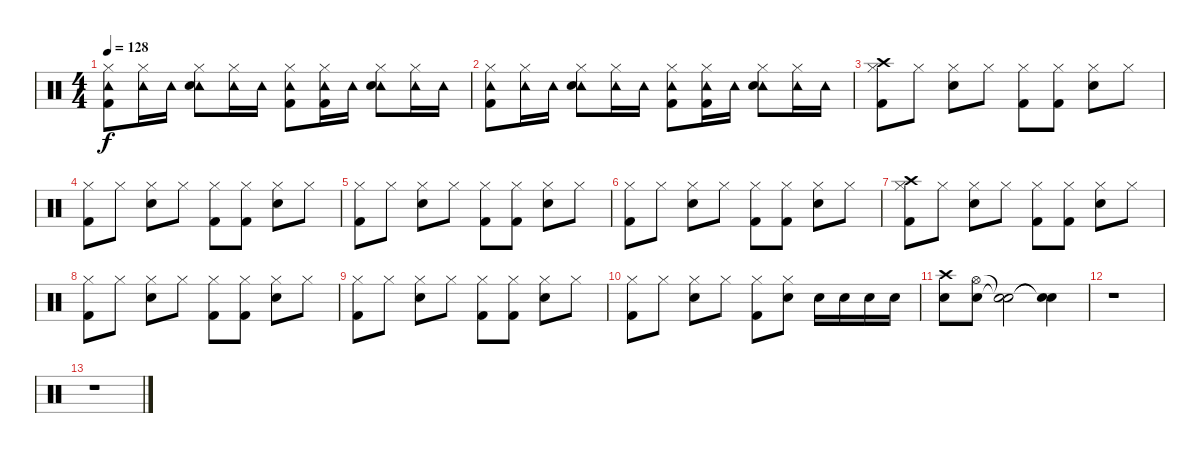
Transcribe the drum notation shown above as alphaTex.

\track "" {instrument percussion}
\staff {score}
\articulation defaults
\ts (4 4)
\tempo 128
\clef neutral
\ks c
("Hi-Hat (closed)" "Tambourine (hit)" "Kick (hit) 2").8{dy f} ("Hi-Hat (closed)" "Tambourine (hit)").16 "Tambourine (hit)".16 ("Hi-Hat (closed)" "Tambourine (hit)" "Snare (hit) 2").8 ("Hi-Hat (closed)" "Tambourine (hit)").16 "Tambourine (hit)".16 ("Hi-Hat (closed)" "Tambourine (hit)" "Kick (hit) 2").8 ("Hi-Hat (closed)" "Tambourine (hit)" "Kick (hit) 2").16 "Tambourine (hit)".16 ("Hi-Hat (closed)" "Tambourine (hit)" "Snare (hit) 2").8 ("Hi-Hat (closed)" "Tambourine (hit)").16 "Tambourine (hit)".16 |
("Hi-Hat (closed)" "Tambourine (hit)" "Kick (hit) 2").8 ("Hi-Hat (closed)" "Tambourine (hit)").16 "Tambourine (hit)".16 ("Hi-Hat (closed)" "Tambourine (hit)" "Snare (hit) 2").8 ("Hi-Hat (closed)" "Tambourine (hit)").16 "Tambourine (hit)".16 ("Hi-Hat (closed)" "Tambourine (hit)" "Kick (hit) 2").8 ("Hi-Hat (closed)" "Tambourine (hit)" "Kick (hit) 2").16 "Tambourine (hit)".16 ("Hi-Hat (closed)" "Tambourine (hit)" "Snare (hit) 2").8 ("Hi-Hat (closed)" "Tambourine (hit)").16 "Tambourine (hit)".16 |
("Hi-Hat (closed)" "Crash high (hit)" "Kick (hit) 2").8 "Hi-Hat (closed)".8 ("Hi-Hat (closed)" "Snare (hit) 2").8 "Hi-Hat (closed)".8 ("Hi-Hat (closed)" "Kick (hit) 2").8 ("Hi-Hat (closed)" "Kick (hit) 2").8 ("Hi-Hat (closed)" "Snare (hit) 2").8 "Hi-Hat (closed)".8 |
("Hi-Hat (closed)" "Kick (hit) 2").8 "Hi-Hat (closed)".8 ("Hi-Hat (closed)" "Snare (hit) 2").8 "Hi-Hat (closed)".8 ("Hi-Hat (closed)" "Kick (hit) 2").8 ("Hi-Hat (closed)" "Kick (hit) 2").8 ("Hi-Hat (closed)" "Snare (hit) 2").8 "Hi-Hat (closed)".8 |
("Hi-Hat (closed)" "Kick (hit) 2").8 "Hi-Hat (closed)".8 ("Hi-Hat (closed)" "Snare (hit) 2").8 "Hi-Hat (closed)".8 ("Hi-Hat (closed)" "Kick (hit) 2").8 ("Hi-Hat (closed)" "Kick (hit) 2").8 ("Hi-Hat (closed)" "Snare (hit) 2").8 "Hi-Hat (closed)".8 |
("Hi-Hat (closed)" "Kick (hit) 2").8 "Hi-Hat (closed)".8 ("Hi-Hat (closed)" "Snare (hit) 2").8 "Hi-Hat (closed)".8 ("Hi-Hat (closed)" "Kick (hit) 2").8 ("Hi-Hat (closed)" "Kick (hit) 2").8 ("Hi-Hat (closed)" "Snare (hit) 2").8 "Hi-Hat (closed)".8 |
("Hi-Hat (closed)" "Crash high (hit)" "Kick (hit) 2").8 "Hi-Hat (closed)".8 ("Hi-Hat (closed)" "Snare (hit) 2").8 "Hi-Hat (closed)".8 ("Hi-Hat (closed)" "Kick (hit) 2").8 ("Hi-Hat (closed)" "Kick (hit) 2").8 ("Hi-Hat (closed)" "Snare (hit) 2").8 "Hi-Hat (closed)".8 |
("Hi-Hat (closed)" "Kick (hit) 2").8 "Hi-Hat (closed)".8 ("Hi-Hat (closed)" "Snare (hit) 2").8 "Hi-Hat (closed)".8 ("Hi-Hat (closed)" "Kick (hit) 2").8 ("Hi-Hat (closed)" "Kick (hit) 2").8 ("Hi-Hat (closed)" "Snare (hit) 2").8 "Hi-Hat (closed)".8 |
("Hi-Hat (closed)" "Kick (hit) 2").8 "Hi-Hat (closed)".8 ("Hi-Hat (closed)" "Snare (hit) 2").8 "Hi-Hat (closed)".8 ("Hi-Hat (closed)" "Kick (hit) 2").8 ("Hi-Hat (closed)" "Kick (hit) 2").8 ("Hi-Hat (closed)" "Snare (hit) 2").8 "Hi-Hat (closed)".8 |
("Hi-Hat (closed)" "Kick (hit) 2").8 "Hi-Hat (closed)".8 ("Hi-Hat (closed)" "Snare (hit) 2").8 "Hi-Hat (closed)".8 ("Hi-Hat (closed)" "Kick (hit) 2").8 ("Hi-Hat (closed)" "Snare (hit) 2").8 "Snare (hit) 2".16 "Snare (hit) 2".16 "Snare (hit) 2".16 "Snare (hit) 2".16 |
("Crash high (hit)" "Snare (hit) 2").8 ("Hi-Hat (open)" "Snare (hit) 2").8 ("Snare (hit)"{t} "Snare (hit)"{t}).2 ("Snare (hit)"{t} "Snare (hit)"{t}).4 |
r.1 |
r.1
